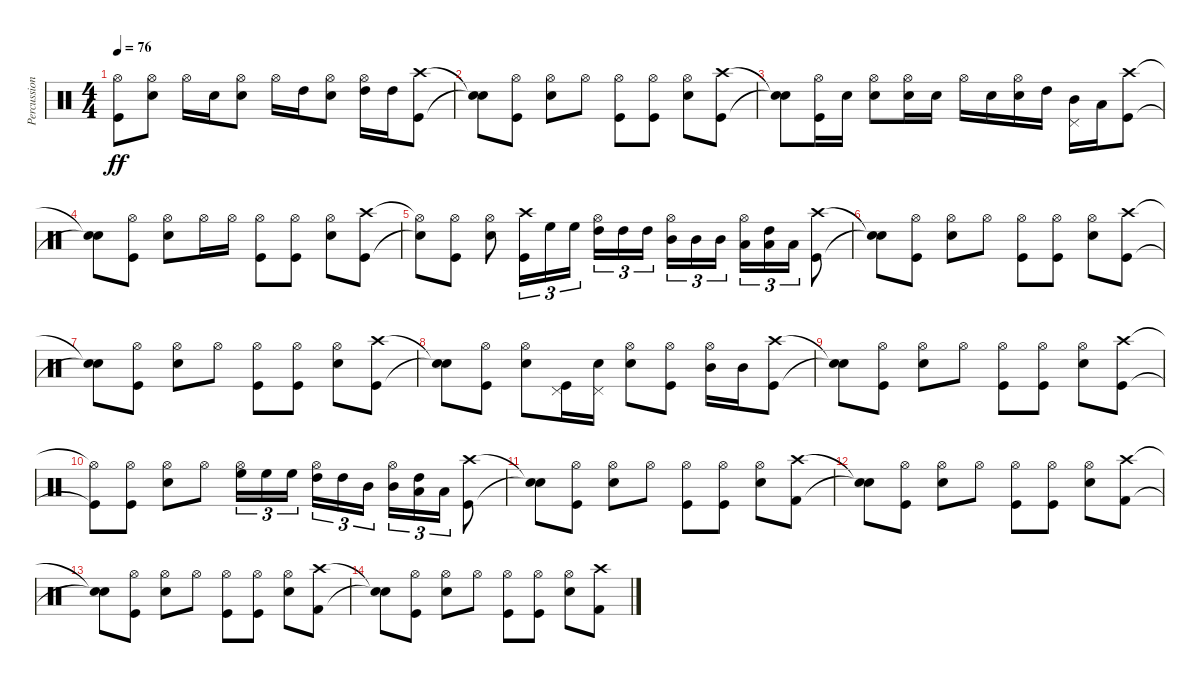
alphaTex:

\track ("Percussion" "Percussion") {instrument percussion}
\staff {score}
\articulation defaults
\ts (4 4)
\tempo 76
\clef neutral
\ks c
("Hi-Hat (open)" "Kick (hit)").8{dy ff} ("Hi-Hat (open)" "Snare (hit) 2").8 "Hi-Hat (open)".16 "Snare (hit) 2".16 ("Hi-Hat (open)" "Snare (hit) 2").8 "Hi-Hat (open)".16 "High Tom (hit)".16 ("Hi-Hat (open)" "Snare (hit) 2").8 ("Hi-Hat (open)" "High Tom (hit)").16 "High Tom (hit)".16 ("Crash high (hit)" "Kick (hit)").8 |
("Snare (hit)"{t} "Snare (hit)"{t}).8 ("Hi-Hat (open)" "Kick (hit)").8 ("Hi-Hat (open)" "Snare (hit) 2").8 "Hi-Hat (open)".8 ("Hi-Hat (open)" "Kick (hit)").8 ("Hi-Hat (open)" "Kick (hit)").8 ("Hi-Hat (open)" "Snare (hit) 2").8 ("Crash high (hit)" "Kick (hit)").8 |
("Snare (hit)"{t} "Snare (hit)"{t}).8 ("Hi-Hat (open)" "Kick (hit)").16 "Snare (hit) 2".16 ("Hi-Hat (open)" "Snare (hit) 2").8 ("Hi-Hat (open)" "Snare (hit) 2").16 "Snare (hit) 2".16 "Hi-Hat (open)".16 "Snare (hit) 2".16 ("Hi-Hat (open)" "Snare (hit) 2").16 "High Tom (hit)".16 ("Pedal Hi-Hat (hit)" "Mid Tom (hit)").16 "Low Tom (hit)".16 ("Crash high (hit)" "Kick (hit)").8 |
("Snare (hit)"{t} "Snare (hit)"{t}).8 ("Hi-Hat (open)" "Kick (hit)").8 ("Hi-Hat (open)" "Snare (hit) 2").8 "Hi-Hat (open)".16 "Hi-Hat (open)".16 ("Hi-Hat (open)" "Kick (hit)").8 ("Hi-Hat (open)" "Kick (hit)").8 ("Hi-Hat (open)" "Snare (hit) 2").8 ("Crash high (hit)" "Kick (hit)").8 |
("Hi-Hat (open)"{t} "Snare (hit)"{t}).8 ("Hi-Hat (open)" "Kick (hit)").8 ("Hi-Hat (open)" "Snare (hit) 2").8 ("Crash high (hit)" "Kick (hit)").16{tu (3 2)} "High Floor Tom (hit)".16{tu (3 2)} "High Floor Tom (hit)".16{tu (3 2)} ("Hi-Hat (open)" "High Tom (hit)").16{tu (3 2)} "High Tom (hit)".16{tu (3 2)} "High Tom (hit)".16{tu (3 2)} ("Hi-Hat (open)" "Mid Tom (hit)").16{tu (3 2)} "Mid Tom (hit)".16{tu (3 2)} "Mid Tom (hit)".16{tu (3 2)} ("Hi-Hat (open)" "Low Tom (hit)").16{tu (3 2)} ("High Tom (hit)" "Low Tom (hit)").16{tu (3 2)} "Low Tom (hit)".16{tu (3 2)} ("Crash high (hit)" "Kick (hit)").8 |
("Snare (hit)"{t} "Snare (hit)"{t}).8 ("Hi-Hat (open)" "Kick (hit)").8 ("Hi-Hat (open)" "Snare (hit) 2").8 "Hi-Hat (open)".8 ("Hi-Hat (open)" "Kick (hit)").8 ("Hi-Hat (open)" "Kick (hit)").8 ("Hi-Hat (open)" "Snare (hit) 2").8 ("Crash high (hit)" "Kick (hit)").8 |
("Snare (hit)"{t} "Snare (hit)"{t}).8{volume 12} ("Hi-Hat (open)" "Kick (hit)").8 ("Hi-Hat (open)" "Snare (hit) 2").8 "Hi-Hat (open)".8 ("Hi-Hat (open)" "Kick (hit)").8 ("Hi-Hat (open)" "Kick (hit)").8 ("Hi-Hat (open)" "Snare (hit) 2").8 ("Crash high (hit)" "Kick (hit)").8 |
("Snare (hit)"{t} "Snare (hit)"{t}).8 ("Hi-Hat (open)" "Kick (hit)").8 ("Hi-Hat (open)" "Snare (hit) 2").8 ("Pedal Hi-Hat (hit)" "Kick (hit)").16 ("Pedal Hi-Hat (hit)" "Snare (hit) 2").16 ("Hi-Hat (open)" "Snare (hit) 2").8 ("Hi-Hat (open)" "Kick (hit)").8 ("Hi-Hat (open)" "Mid Tom (hit)").16 "Mid Tom (hit)".16 ("Crash high (hit)" "Kick (hit)").8 |
("Snare (hit)"{t} "Snare (hit)"{t}).8{volume 8} ("Hi-Hat (open)" "Kick (hit)").8 ("Hi-Hat (open)" "Snare (hit) 2").8 "Hi-Hat (open)".8 ("Hi-Hat (open)" "Kick (hit)").8 ("Hi-Hat (open)" "Kick (hit)").8 ("Hi-Hat (open)" "Snare (hit) 2").8 ("Crash high (hit)" "Kick (hit)").8 |
("Hi-Hat (open)"{t} "Kick (hit)"{t}).8 ("Hi-Hat (open)" "Kick (hit)").8 ("Hi-Hat (open)" "Snare (hit) 2").8 "Hi-Hat (open)".8 ("Hi-Hat (open)" "High Floor Tom (hit)").16{tu (3 2)} "High Floor Tom (hit)".16{tu (3 2)} "High Floor Tom (hit)".16{tu (3 2)} ("Hi-Hat (open)" "High Tom (hit)").16{tu (3 2)} "High Tom (hit)".16{tu (3 2)} "Mid Tom (hit)".16{tu (3 2)} ("Hi-Hat (open)" "Mid Tom (hit)").16{tu (3 2)} ("High Tom (hit)" "Low Tom (hit)").16{tu (3 2)} "Low Tom (hit)".16{tu (3 2)} ("Crash high (hit)" "Kick (hit)").8 |
("Snare (hit)"{t} "Snare (hit)"{t}).8{volume 4} ("Hi-Hat (open)" "Kick (hit)").8 ("Hi-Hat (open)" "Snare (hit) 2").8 "Hi-Hat (open)".8 ("Hi-Hat (open)" "Kick (hit)").8 ("Hi-Hat (open)" "Kick (hit)").8 ("Hi-Hat (open)" "Snare (hit) 2").8 ("Crash high (hit)" "Kick (hit) 2").8 |
("Snare (hit)"{t} "Snare (hit)"{t}).8 ("Hi-Hat (open)" "Kick (hit)").8 ("Hi-Hat (open)" "Snare (hit) 2").8 "Hi-Hat (open)".8 ("Hi-Hat (open)" "Kick (hit)").8 ("Hi-Hat (open)" "Kick (hit)").8 ("Hi-Hat (open)" "Snare (hit) 2").8 ("Crash high (hit)" "Kick (hit) 2").8 |
("Snare (hit)"{t} "Snare (hit)"{t}).8{volume 0} ("Hi-Hat (open)" "Kick (hit)").8 ("Hi-Hat (open)" "Snare (hit) 2").8 "Hi-Hat (open)".8 ("Hi-Hat (open)" "Kick (hit)").8 ("Hi-Hat (open)" "Kick (hit)").8 ("Hi-Hat (open)" "Snare (hit) 2").8 ("Crash high (hit)" "Kick (hit) 2").8 |
("Snare (hit)"{t} "Snare (hit)"{t}).8 ("Hi-Hat (open)" "Kick (hit)").8 ("Hi-Hat (open)" "Snare (hit) 2").8 "Hi-Hat (open)".8 ("Hi-Hat (open)" "Kick (hit)").8 ("Hi-Hat (open)" "Kick (hit)").8 ("Hi-Hat (open)" "Snare (hit) 2").8 ("Crash high (hit)" "Kick (hit) 2").8
